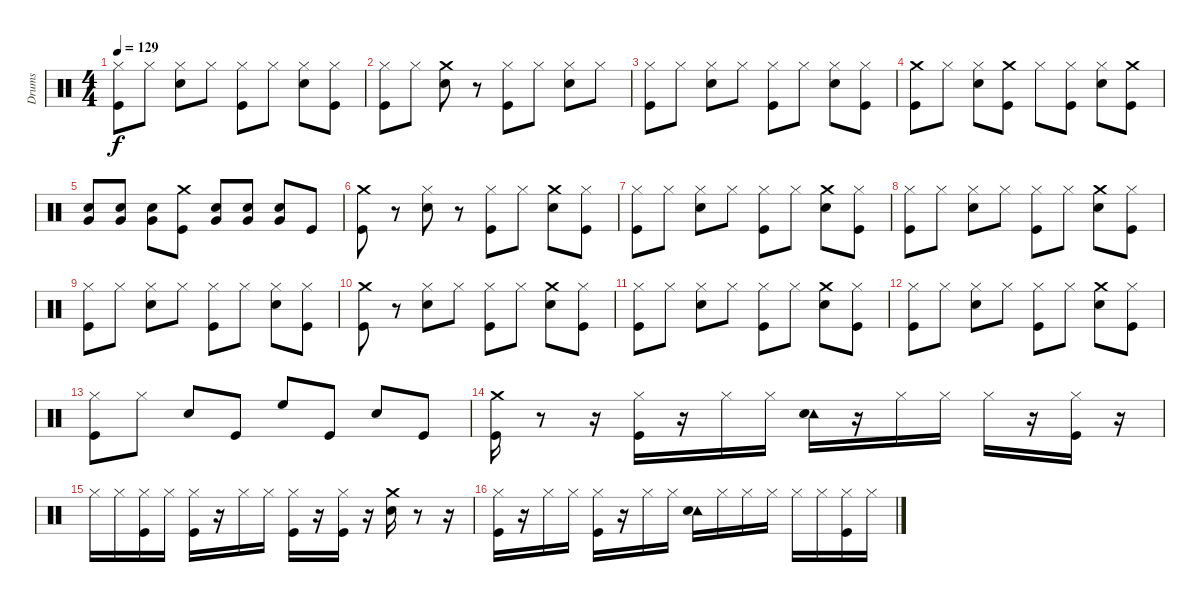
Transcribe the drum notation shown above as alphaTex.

\track ("Drums" "Drums") {instrument percussion}
\staff {score}
\articulation defaults
\ts (4 4)
\tempo 129
\clef neutral
\ks c
("Hi-Hat (closed)" "Kick (hit)").8{dy f} "Hi-Hat (closed)".8 ("Snare (hit) 2" "Hi-Hat (closed)").8 "Hi-Hat (closed)".8 ("Kick (hit)" "Hi-Hat (closed)").8 "Hi-Hat (closed)".8 ("Snare (hit) 2" "Hi-Hat (closed)").8 ("Kick (hit)" "Hi-Hat (closed)").8 |
("Hi-Hat (closed)" "Kick (hit)").8 "Hi-Hat (closed)".8 ("Crash medium (hit)" "Snare (hit) 2").8 r.8 ("Kick (hit)" "Hi-Hat (closed)").8 "Hi-Hat (closed)".8 ("Hi-Hat (closed)" "Snare (hit) 2").8 "Hi-Hat (closed)".8 |
("Hi-Hat (closed)" "Kick (hit)").8 "Hi-Hat (closed)".8 ("Snare (hit) 2" "Hi-Hat (closed)").8 "Hi-Hat (closed)".8 ("Kick (hit)" "Hi-Hat (closed)").8 "Hi-Hat (closed)".8 ("Snare (hit) 2" "Hi-Hat (closed)").8 ("Kick (hit)" "Hi-Hat (closed)").8 |
("Crash medium (hit)" "Kick (hit)").8 "Hi-Hat (closed)".8 ("Snare (hit) 2" "Hi-Hat (closed)").8 ("Crash medium (hit)" "Kick (hit)").8 "Hi-Hat (closed)".8 ("Kick (hit)" "Hi-Hat (closed)").8 ("Hi-Hat (closed)" "Snare (hit) 2").8 ("Crash medium (hit)" "Kick (hit)").8 |
("Very Low Tom (hit)" "Snare (hit) 2").8 ("Very Low Tom (hit)" "Snare (hit) 2").8 ("Very Low Tom (hit)" "Snare (hit) 2").8 ("Crash medium (hit)" "Kick (hit)").8 ("Very Low Tom (hit)" "Snare (hit) 2").8 ("Very Low Tom (hit)" "Snare (hit) 2").8 ("Very Low Tom (hit)" "Snare (hit) 2").8 "Kick (hit)".8 |
("Crash medium (hit)" "Kick (hit)").8 r.8 ("Hi-Hat (closed)" "Snare (hit) 2").8 r.8 ("Kick (hit)" "Hi-Hat (closed)").8 "Hi-Hat (closed)".8 ("Snare (hit) 2" "Crash medium (hit)").8 ("Hi-Hat (closed)" "Kick (hit)").8 |
("Hi-Hat (closed)" "Kick (hit)").8 "Hi-Hat (closed)".8 ("Hi-Hat (closed)" "Snare (hit) 2").8 "Hi-Hat (closed)".8 ("Kick (hit)" "Hi-Hat (closed)").8 "Hi-Hat (closed)".8 ("Snare (hit) 2" "Crash medium (hit)").8 ("Hi-Hat (closed)" "Kick (hit)").8 |
("Hi-Hat (closed)" "Kick (hit)").8 "Hi-Hat (closed)".8 ("Hi-Hat (closed)" "Snare (hit) 2").8 "Hi-Hat (closed)".8 ("Kick (hit)" "Hi-Hat (closed)").8 "Hi-Hat (closed)".8 ("Snare (hit) 2" "Crash medium (hit)").8 ("Hi-Hat (closed)" "Kick (hit)").8 |
("Hi-Hat (closed)" "Kick (hit)").8 "Hi-Hat (closed)".8 ("Hi-Hat (closed)" "Snare (hit) 2").8 "Hi-Hat (closed)".8 ("Kick (hit)" "Hi-Hat (closed)").8 "Hi-Hat (closed)".8 ("Hi-Hat (closed)" "Snare (hit) 2").8 ("Hi-Hat (closed)" "Kick (hit)").8 |
("Crash medium (hit)" "Kick (hit)").8 r.8 ("Hi-Hat (closed)" "Snare (hit) 2").8 "Hi-Hat (closed)".8 ("Kick (hit)" "Hi-Hat (closed)").8 "Hi-Hat (closed)".8 ("Snare (hit) 2" "Crash medium (hit)").8 ("Hi-Hat (closed)" "Kick (hit)").8 |
("Hi-Hat (closed)" "Kick (hit)").8 "Hi-Hat (closed)".8 ("Hi-Hat (closed)" "Snare (hit) 2").8 "Hi-Hat (closed)".8 ("Kick (hit)" "Hi-Hat (closed)").8 "Hi-Hat (closed)".8 ("Snare (hit) 2" "Crash medium (hit)").8 ("Hi-Hat (closed)" "Kick (hit)").8 |
("Hi-Hat (closed)" "Kick (hit)").8 "Hi-Hat (closed)".8 ("Hi-Hat (closed)" "Snare (hit) 2").8 "Hi-Hat (closed)".8 ("Kick (hit)" "Hi-Hat (closed)").8 "Hi-Hat (closed)".8 ("Snare (hit) 2" "Crash medium (hit)").8 ("Hi-Hat (closed)" "Kick (hit)").8 |
("Kick (hit)" "Hi-Hat (closed)").8 "Hi-Hat (closed)".8 "Snare (hit) 2".8 "Kick (hit)".8 "High Floor Tom (hit)".8 "Kick (hit)".8 "Snare (hit) 2".8 "Kick (hit)".8 |
("Crash medium (hit)" "Kick (hit)").16 r.8 r.16 ("Hi-Hat (closed)" "Kick (hit)").16 r.16 "Hi-Hat (closed)".16 "Hi-Hat (closed)".16 ("Tambourine (hit)" "Snare (hit) 2").16 r.16 "Hi-Hat (closed)".16 "Hi-Hat (closed)".16 "Hi-Hat (closed)".16 r.16 ("Hi-Hat (closed)" "Kick (hit)").16 r.16 |
"Hi-Hat (closed)".16 "Hi-Hat (closed)".16 ("Kick (hit)" "Hi-Hat (closed)").16 "Hi-Hat (closed)".16 ("Hi-Hat (closed)" "Kick (hit)").16 r.16 "Hi-Hat (closed)".16 "Hi-Hat (closed)".16 ("Hi-Hat (closed)" "Kick (hit)").16 r.16 ("Kick (hit)" "Hi-Hat (closed)").16 r.16 ("Crash medium (hit)" "Snare (hit) 2").16 r.8 r.16 |
("Hi-Hat (closed)" "Kick (hit)").16 r.16 "Hi-Hat (closed)".16 "Hi-Hat (closed)".16 ("Hi-Hat (closed)" "Kick (hit)").16 r.16 "Hi-Hat (closed)".16 "Hi-Hat (closed)".16 ("Tambourine (hit)" "Snare (hit) 2").16 "Hi-Hat (closed)".16 "Hi-Hat (closed)".16 "Hi-Hat (closed)".16 "Hi-Hat (closed)".16 "Hi-Hat (closed)".16 ("Hi-Hat (closed)" "Kick (hit)").16 "Hi-Hat (closed)".16
